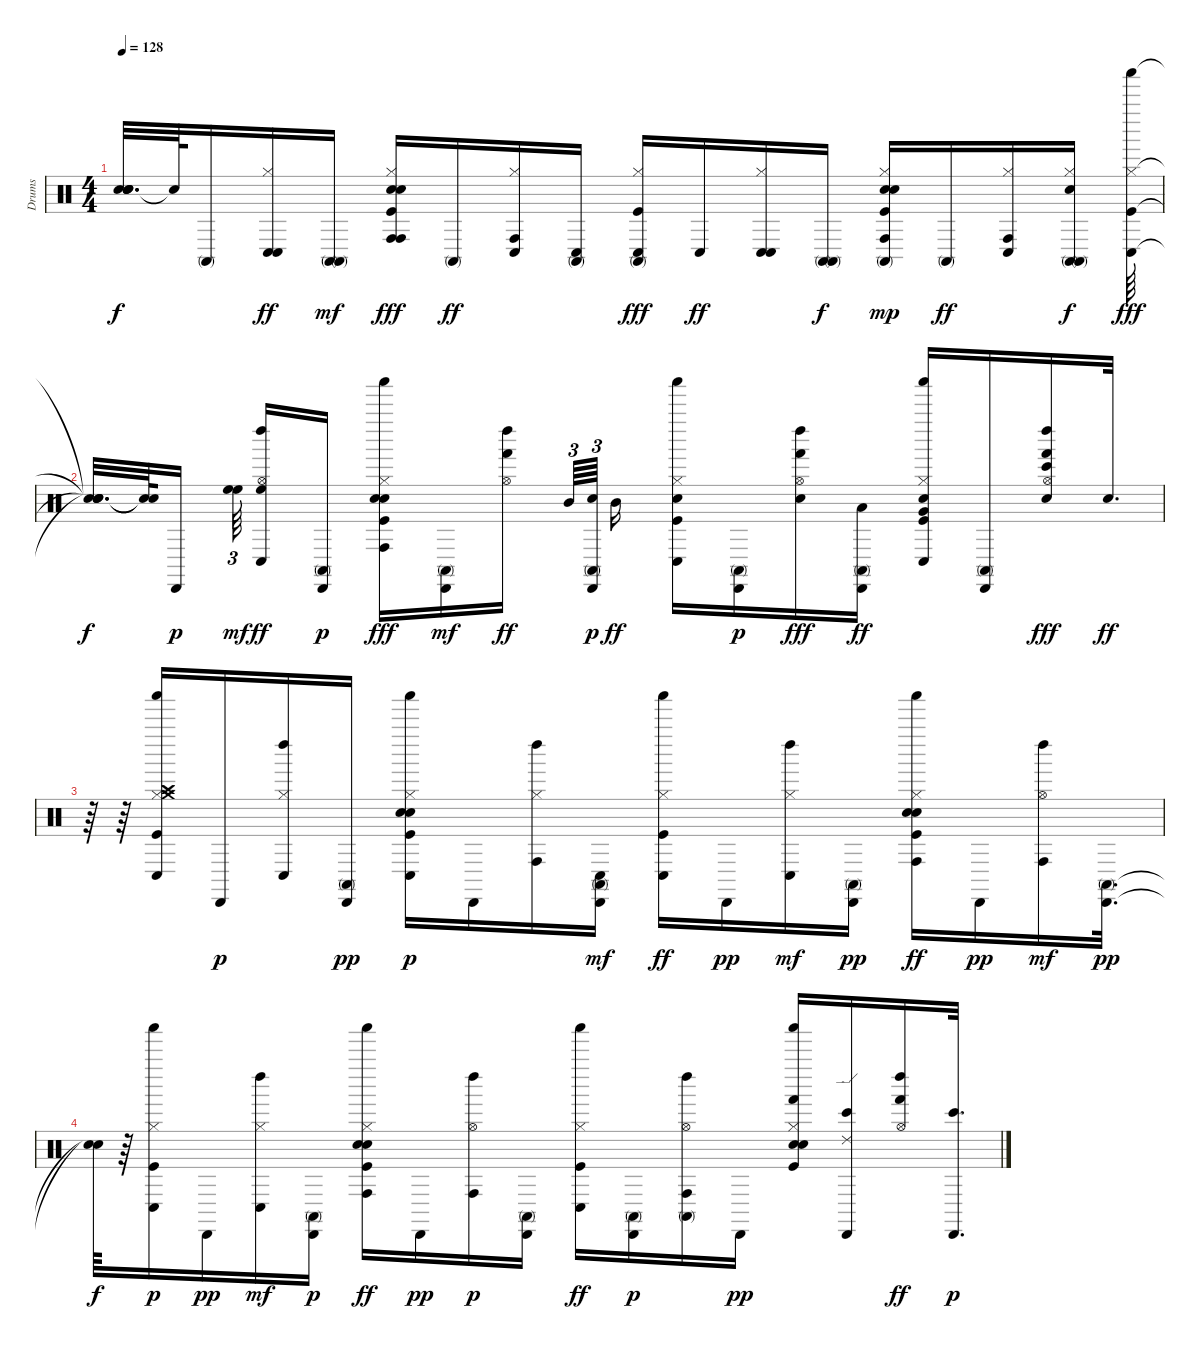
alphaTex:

\track ("Drums" "Drums") {instrument percussion}
\staff {score}
\articulation defaults
\ts (4 4)
\tempo 128
\clef neutral
\ks c
("Snare (hit)"{t} "Snare (hit)"{t} "Snare (hit)"{t} "Snare (hit)"{t}).32{d dy f} "Snare (hit)"{t}.64 "Conga high (mute)".16 ("Hi-Hat (closed)" "Conga low (hit)" "Conga low (hit)").16{dy ff} ("Conga high (mute)" "Conga high (mute)").16{dy mf} ("Kick (hit)" "Snare (hit) 2" "Hand Clap (hit)" "Hi-Hat (closed)" "Conga high (hit)" "Conga high (hit)").16{dy fff} "Conga high (mute)".16{dy ff} ("Hi-Hat (closed)" "Conga low (hit)" "Conga high (hit)").16 ("Conga low (hit)" "Conga high (mute)").16 ("Kick (hit)" "Hi-Hat (closed)" "Conga high (mute)" "Conga low (hit)").16{dy fff} "Conga low (hit)".16{dy ff} ("Hi-Hat (closed)" "Conga low (hit)" "Conga low (hit)").16 ("Conga high (mute)" "Conga high (mute)").16{dy f} ("Kick (hit)" "Snare (hit) 2" "Hand Clap (hit)" "Hi-Hat (closed)" "Conga high (hit)" "Conga high (mute)").16{dy mp} "Conga high (mute)".16{dy ff} ("Hi-Hat (closed)" "Conga low (hit)" "Conga high (hit)").16 ("Snare (hit) 2" "Hi-Hat (closed)" "Conga high (mute)" "Conga high (mute)").16{dy f} ("Kick (hit)" "Hi-Hat (closed)" "Shaker (hit)" "Conga low (hit)").64{dy fff} |
("Snare (hit)"{t} "Snare (hit)"{t} "Snare (hit)"{t} "Snare (hit)"{t}).32{d dy f} ("Snare (hit)"{t} "Snare (hit)"{t}).64 "Cabasa (hit)".16{dy p} ("High Floor Tom (hit)" "High Floor Tom (hit)").64{tu (3 2) dy mf} ("Hi-Hat (open)" "Left Maraca (hit)" "High Floor Tom (hit)" "Conga low (hit)").16{dy ff} ("Cabasa (hit)" "Conga high (mute)").16{dy p} ("Kick (hit)" "Snare (hit) 2" "Hand Clap (hit)" "Hi-Hat (closed)" "Shaker (hit)" "Conga high (hit)").16{dy fff} ("Cabasa (hit)" "Conga high (mute)").16{dy mf} ("Hi-Hat (open)" "Left Maraca (hit)" "Hand (hit)").16{dy ff} "Mid Tom (hit)".64{tu (3 2)} ("Snare (hit) 2" "Cabasa (hit)" "Conga high (mute)").64{tu (3 2) dy p} "Mid Tom (hit)".16{dy ff} ("Kick (hit)" "Snare (hit) 2" "Hi-Hat (closed)" "Shaker (hit)" "Conga low (hit)").16 ("Cabasa (hit)" "Conga high (mute)").16{dy p} ("Snare (hit) 2" "Hi-Hat (open)" "Left Maraca (hit)" "Hand (hit)").16{dy fff} ("Cabasa (hit)" "Conga high (mute)" "Low Tom (hit)").16{dy ff} ("Kick (hit)" "Hand Clap (hit)" "Hi-Hat (closed)" "Shaker (hit)" "Conga low (hit)" "Very Low Tom (hit)").16 ("Cabasa (hit)" "Conga high (mute)").16 ("Snare (hit) 2" "Hi-Hat (open)" "Left Maraca (hit)" "Hand (hit)" "Bongo High (hit)").16{dy fff} "Snare (hit) 2".32{d dy ff} |
r.64 r.64 ("Kick (hit)" "Hi-Hat (closed)" "Crash medium (hit)" "Crash high (hit)" "Shaker (hit)" "Conga low (hit)").16 "Cabasa (hit)".16{dy p} ("Hi-Hat (closed)" "Left Maraca (hit)" "Conga low (hit)").16 ("Cabasa (hit)" "Conga high (mute)").16{dy pp} ("Kick (hit)" "Snare (hit) 2" "Hand Clap (hit)" "Hi-Hat (closed)" "Shaker (hit)" "Conga low (hit)").16{dy p} "Cabasa (hit)".16 ("Hi-Hat (closed)" "Left Maraca (hit)" "Conga high (hit)").16 ("Cabasa (hit)" "Conga high (mute)" "Conga low (hit)").16{dy mf} ("Kick (hit)" "Hi-Hat (closed)" "Shaker (hit)" "Conga low (hit)").16{dy ff} "Cabasa (hit)".16{dy pp} ("Hi-Hat (closed)" "Left Maraca (hit)" "Conga low (hit)").16{dy mf} ("Cabasa (hit)" "Conga high (mute)").16{dy pp} ("Kick (hit)" "Snare (hit) 2" "Hand Clap (hit)" "Hi-Hat (closed)" "Shaker (hit)" "Conga high (hit)").16{dy ff} "Cabasa (hit)".16{dy pp} ("Hi-Hat (open)" "Left Maraca (hit)" "Conga high (hit)").16{dy mf} ("Cabasa (hit)" "Conga high (mute)").32{d dy pp} |
("Snare (hit)"{t} "Snare (hit)"{t}).64{dy f} r.64 ("Kick (hit)" "Hi-Hat (closed)" "Shaker (hit)" "Conga low (hit)").16{dy p} "Cabasa (hit)".16{dy pp} ("Hi-Hat (closed)" "Left Maraca (hit)" "Conga low (hit)").16{dy mf} ("Cabasa (hit)" "Conga high (mute)").16{dy p} ("Kick (hit)" "Snare (hit) 2" "Hand Clap (hit)" "Hi-Hat (closed)" "Shaker (hit)" "Conga high (hit)").16{dy ff} "Cabasa (hit)".16{dy pp} ("Hi-Hat (open)" "Left Maraca (hit)" "Conga high (hit)").16{dy p} ("Cabasa (hit)" "Conga high (mute)").16 ("Kick (hit)" "Hi-Hat (closed)" "Shaker (hit)" "Conga low (hit)").16{dy ff} ("Cabasa (hit)" "Conga high (mute)").16{dy p} ("Hi-Hat (open)" "Left Maraca (hit)" "Conga high (hit)" "Conga high (mute)").16 "Cabasa (hit)".16{dy pp} ("Kick (hit)" "Snare (hit) 2" "Hand Clap (hit)" "Hi-Hat (closed)" "Shaker (hit)" "Hand (hit)").16 ("Cabasa (hit)" "Bongo High (hit)" "Ride (edge) 2").16 ("Hi-Hat (open)" "Left Maraca (hit)" "Hand (hit)").16{dy ff} ("Cabasa (hit)" "Bongo High (hit)").32{d dy p}
